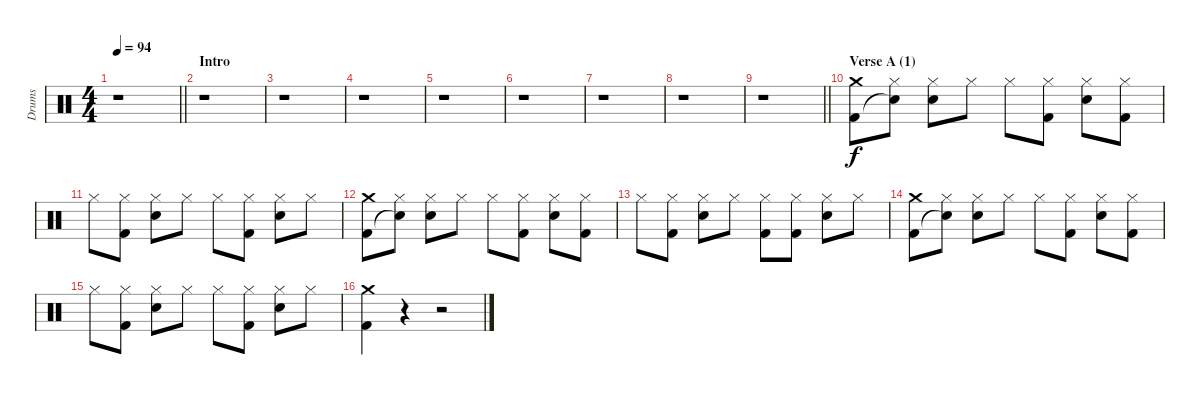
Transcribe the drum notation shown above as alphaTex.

\track ("Drums" "Drums") {instrument percussion}
\staff {score}
\articulation defaults
\ts (4 4)
\tempo 94
\clef neutral
\barLineRight lightlight
\ks aminor
r.1{dy f} |
\section ("" "Intro")
r.1 |
r.1 |
r.1 |
r.1 |
r.1 |
r.1 |
r.1 |
\barLineRight lightlight
r.1 |
\section ("" "Verse A (1)")
("Crash medium (hit)" "Kick (hit) 2").8 ("Hi-Hat (closed)" "Snare (hit)"{t}).8 ("Hi-Hat (closed)" "Electric Snare (hit)").8 "Hi-Hat (closed)".8 "Hi-Hat (closed)".8 ("Hi-Hat (closed)" "Kick (hit) 2").8 ("Hi-Hat (closed)" "Electric Snare (hit)").8 ("Hi-Hat (closed)" "Kick (hit) 2").8 |
"Hi-Hat (closed)".8 ("Hi-Hat (closed)" "Kick (hit) 2").8 ("Hi-Hat (closed)" "Electric Snare (hit)").8 "Hi-Hat (closed)".8 "Hi-Hat (closed)".8 ("Hi-Hat (closed)" "Kick (hit) 2").8 ("Hi-Hat (closed)" "Electric Snare (hit)").8 "Hi-Hat (closed)".8 |
("Crash medium (hit)" "Kick (hit) 2").8 ("Hi-Hat (closed)" "Snare (hit)"{t}).8 ("Hi-Hat (closed)" "Electric Snare (hit)").8 "Hi-Hat (closed)".8 "Hi-Hat (closed)".8 ("Hi-Hat (closed)" "Kick (hit) 2").8 ("Hi-Hat (closed)" "Electric Snare (hit)").8 ("Hi-Hat (closed)" "Kick (hit) 2").8 |
"Hi-Hat (closed)".8 ("Hi-Hat (closed)" "Kick (hit) 2").8 ("Hi-Hat (closed)" "Electric Snare (hit)").8 "Hi-Hat (closed)".8 ("Hi-Hat (closed)" "Kick (hit) 2").8 ("Hi-Hat (closed)" "Kick (hit) 2").8 ("Hi-Hat (closed)" "Electric Snare (hit)").8 "Hi-Hat (closed)".8 |
("Crash medium (hit)" "Kick (hit) 2").8 ("Hi-Hat (closed)" "Snare (hit)"{t}).8 ("Hi-Hat (closed)" "Electric Snare (hit)").8 "Hi-Hat (closed)".8 "Hi-Hat (closed)".8 ("Hi-Hat (closed)" "Kick (hit) 2").8 ("Hi-Hat (closed)" "Electric Snare (hit)").8 ("Hi-Hat (closed)" "Kick (hit) 2").8 |
"Hi-Hat (closed)".8 ("Hi-Hat (closed)" "Kick (hit) 2").8 ("Hi-Hat (closed)" "Electric Snare (hit)").8 "Hi-Hat (closed)".8 "Hi-Hat (closed)".8 ("Hi-Hat (closed)" "Kick (hit) 2").8 ("Hi-Hat (closed)" "Electric Snare (hit)").8 "Hi-Hat (closed)".8 |
("Crash medium (hit)" "Kick (hit) 2").4 r.4 r.2
